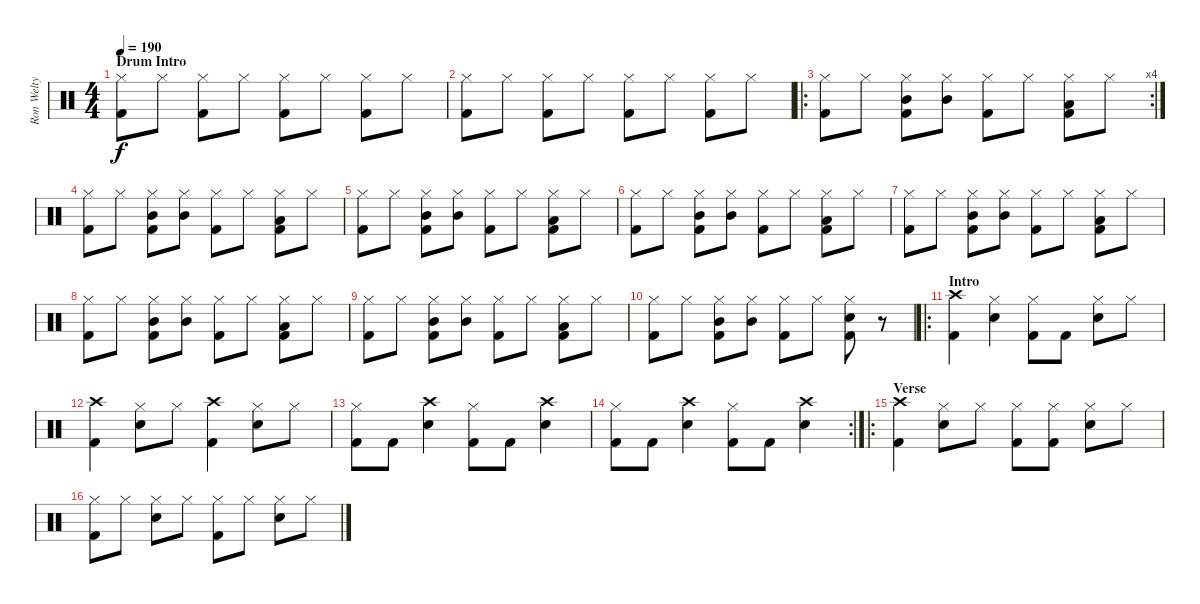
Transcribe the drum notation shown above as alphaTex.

\track ("Ron Welty" "Ron Welty") {instrument percussion}
\staff {score}
\articulation defaults
\ts (4 4)
\section ("" "Drum Intro")
\tempo 190
\clef neutral
\ks c
("Hi-Hat (closed)" "Kick (hit) 2").8{dy f} "Hi-Hat (closed)".8 ("Hi-Hat (closed)" "Kick (hit) 2").8 "Hi-Hat (closed)".8 ("Hi-Hat (closed)" "Kick (hit) 2").8 "Hi-Hat (closed)".8 ("Hi-Hat (closed)" "Kick (hit) 2").8 "Hi-Hat (closed)".8 |
("Hi-Hat (closed)" "Kick (hit) 2").8 "Hi-Hat (closed)".8 ("Hi-Hat (closed)" "Kick (hit) 2").8 "Hi-Hat (closed)".8 ("Hi-Hat (closed)" "Kick (hit) 2").8 "Hi-Hat (closed)".8 ("Hi-Hat (closed)" "Kick (hit) 2").8 "Hi-Hat (closed)".8 |
\ro
\rc 4
("Hi-Hat (closed)" "Kick (hit) 2").8 "Hi-Hat (closed)".8 ("Hi-Hat (closed)" "Mid Tom (hit)" "Kick (hit) 2").8 ("Hi-Hat (closed)" "Mid Tom (hit)").8 ("Hi-Hat (closed)" "Kick (hit) 2").8 "Hi-Hat (closed)".8 ("Hi-Hat (closed)" "Low Tom (hit)" "Kick (hit) 2").8 "Hi-Hat (closed)".8 |
("Hi-Hat (closed)" "Kick (hit) 2").8 "Hi-Hat (closed)".8 ("Hi-Hat (closed)" "Mid Tom (hit)" "Kick (hit) 2").8 ("Hi-Hat (closed)" "Mid Tom (hit)").8 ("Hi-Hat (closed)" "Kick (hit) 2").8 "Hi-Hat (closed)".8 ("Hi-Hat (closed)" "Low Tom (hit)" "Kick (hit) 2").8 "Hi-Hat (closed)".8 |
("Hi-Hat (closed)" "Kick (hit) 2").8 "Hi-Hat (closed)".8 ("Hi-Hat (closed)" "Mid Tom (hit)" "Kick (hit) 2").8 ("Hi-Hat (closed)" "Mid Tom (hit)").8 ("Hi-Hat (closed)" "Kick (hit) 2").8 "Hi-Hat (closed)".8 ("Hi-Hat (closed)" "Low Tom (hit)" "Kick (hit) 2").8 "Hi-Hat (closed)".8 |
("Hi-Hat (closed)" "Kick (hit) 2").8 "Hi-Hat (closed)".8 ("Hi-Hat (closed)" "Mid Tom (hit)" "Kick (hit) 2").8 ("Hi-Hat (closed)" "Mid Tom (hit)").8 ("Hi-Hat (closed)" "Kick (hit) 2").8 "Hi-Hat (closed)".8 ("Hi-Hat (closed)" "Low Tom (hit)" "Kick (hit) 2").8 "Hi-Hat (closed)".8 |
("Hi-Hat (closed)" "Kick (hit) 2").8 "Hi-Hat (closed)".8 ("Hi-Hat (closed)" "Mid Tom (hit)" "Kick (hit) 2").8 ("Hi-Hat (closed)" "Mid Tom (hit)").8 ("Hi-Hat (closed)" "Kick (hit) 2").8 "Hi-Hat (closed)".8 ("Hi-Hat (closed)" "Low Tom (hit)" "Kick (hit) 2").8 "Hi-Hat (closed)".8 |
("Hi-Hat (closed)" "Kick (hit) 2").8 "Hi-Hat (closed)".8 ("Hi-Hat (closed)" "Mid Tom (hit)" "Kick (hit) 2").8 ("Hi-Hat (closed)" "Mid Tom (hit)").8 ("Hi-Hat (closed)" "Kick (hit) 2").8 "Hi-Hat (closed)".8 ("Hi-Hat (closed)" "Low Tom (hit)" "Kick (hit) 2").8 "Hi-Hat (closed)".8 |
("Hi-Hat (closed)" "Kick (hit) 2").8 "Hi-Hat (closed)".8 ("Hi-Hat (closed)" "Mid Tom (hit)" "Kick (hit) 2").8 ("Hi-Hat (closed)" "Mid Tom (hit)").8 ("Hi-Hat (closed)" "Kick (hit) 2").8 "Hi-Hat (closed)".8 ("Hi-Hat (closed)" "Low Tom (hit)" "Kick (hit) 2").8 "Hi-Hat (closed)".8 |
("Hi-Hat (closed)" "Kick (hit) 2").8 "Hi-Hat (closed)".8 ("Hi-Hat (closed)" "Mid Tom (hit)" "Kick (hit) 2").8 ("Hi-Hat (closed)" "Mid Tom (hit)").8 ("Hi-Hat (closed)" "Kick (hit) 2").8 "Hi-Hat (closed)".8 ("Hi-Hat (closed)" "Electric Snare (hit)" "Kick (hit) 2").8 r.8 |
\ro
\section ("" "Intro")
("Crash high (hit)" "Kick (hit) 2").4 ("Hi-Hat (closed)" "Electric Snare (hit)").4 ("Hi-Hat (closed)" "Kick (hit) 2").8 "Kick (hit) 2".8 ("Hi-Hat (closed)" "Electric Snare (hit)").8 "Hi-Hat (closed)".8 |
("Crash high (hit)" "Kick (hit) 2").4 ("Hi-Hat (closed)" "Electric Snare (hit)").8 "Hi-Hat (closed)".8 ("Crash high (hit)" "Kick (hit) 2").4 ("Hi-Hat (closed)" "Electric Snare (hit)").8 "Hi-Hat (closed)".8 |
("Hi-Hat (closed)" "Kick (hit) 2").8 "Kick (hit) 2".8 ("Crash high (hit)" "Electric Snare (hit)").4 ("Hi-Hat (closed)" "Kick (hit) 2").8 "Kick (hit) 2".8 ("Crash high (hit)" "Electric Snare (hit)").4 |
\rc 2
("Hi-Hat (closed)" "Kick (hit) 2").8 "Kick (hit) 2".8 ("Crash high (hit)" "Electric Snare (hit)").4 ("Hi-Hat (closed)" "Kick (hit) 2").8 "Kick (hit) 2".8 ("Crash high (hit)" "Electric Snare (hit)").4 |
\ro
\section ("" "Verse")
("Crash high (hit)" "Kick (hit) 2").4 ("Hi-Hat (closed)" "Electric Snare (hit)").8 "Hi-Hat (closed)".8 ("Hi-Hat (closed)" "Kick (hit) 2").8 ("Hi-Hat (closed)" "Kick (hit) 2").8 ("Hi-Hat (closed)" "Electric Snare (hit)").8 "Hi-Hat (closed)".8 |
("Hi-Hat (closed)" "Kick (hit) 2").8 "Hi-Hat (closed)".8 ("Hi-Hat (closed)" "Electric Snare (hit)").8 "Hi-Hat (closed)".8 ("Hi-Hat (closed)" "Kick (hit) 2").8 "Hi-Hat (closed)".8 ("Hi-Hat (closed)" "Electric Snare (hit)").8 "Hi-Hat (closed)".8
